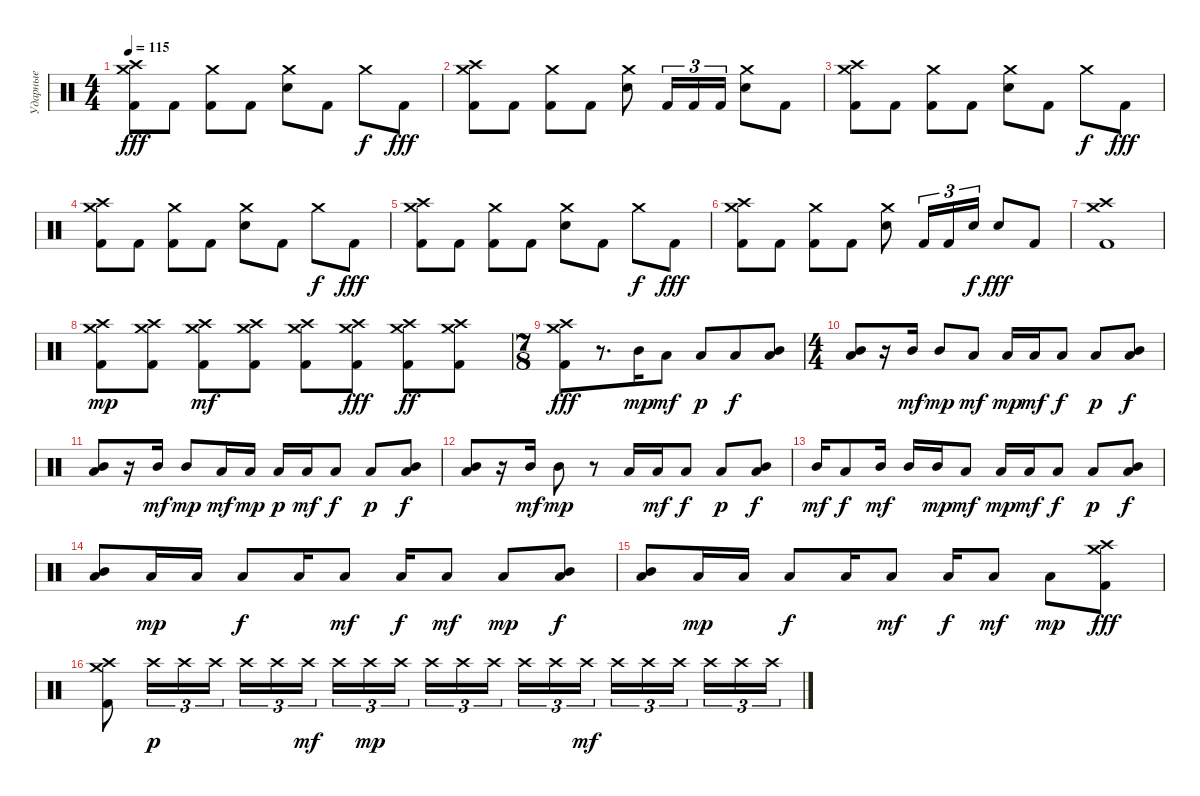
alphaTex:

\track ("Ударные" "Ударные") {instrument percussion}
\staff {score}
\articulation defaults
\ts (4 4)
\tempo 115
\clef neutral
\ks c
("Crash high (hit)" "Crash medium (hit)" "Kick (hit) 2").8{dy fff} "Kick (hit) 2".8 ("Crash medium (hit)" "Kick (hit) 2").8 "Kick (hit) 2".8 ("Crash medium (hit)" "Electric Snare (hit)").8 "Kick (hit) 2".8 "Crash medium (hit)".8{dy f} "Kick (hit) 2".8{dy fff} |
("Crash high (hit)" "Crash medium (hit)" "Kick (hit) 2").8 "Kick (hit) 2".8 ("Crash medium (hit)" "Kick (hit) 2").8 "Kick (hit) 2".8 ("Crash medium (hit)" "Electric Snare (hit)").8 "Kick (hit) 2".16{tu (3 2)} "Kick (hit) 2".16{tu (3 2)} "Kick (hit) 2".16{tu (3 2)} ("Crash medium (hit)" "Electric Snare (hit)").8 "Kick (hit) 2".8 |
("Crash high (hit)" "Crash medium (hit)" "Kick (hit) 2").8 "Kick (hit) 2".8 ("Crash medium (hit)" "Kick (hit) 2").8 "Kick (hit) 2".8 ("Crash medium (hit)" "Electric Snare (hit)").8 "Kick (hit) 2".8 "Crash medium (hit)".8{dy f} "Kick (hit) 2".8{dy fff} |
("Crash high (hit)" "Crash medium (hit)" "Kick (hit) 2").8 "Kick (hit) 2".8 ("Crash medium (hit)" "Kick (hit) 2").8 "Kick (hit) 2".8 ("Crash medium (hit)" "Electric Snare (hit)").8 "Kick (hit) 2".8 "Crash medium (hit)".8{dy f} "Kick (hit) 2".8{dy fff} |
("Crash high (hit)" "Crash medium (hit)" "Kick (hit) 2").8 "Kick (hit) 2".8 ("Crash medium (hit)" "Kick (hit) 2").8 "Kick (hit) 2".8 ("Crash medium (hit)" "Electric Snare (hit)").8 "Kick (hit) 2".8 "Crash medium (hit)".8{dy f} "Kick (hit) 2".8{dy fff} |
("Crash high (hit)" "Crash medium (hit)" "Kick (hit) 2").8 "Kick (hit) 2".8 ("Crash medium (hit)" "Kick (hit) 2").8 "Kick (hit) 2".8 ("Crash medium (hit)" "Electric Snare (hit)").8 "Kick (hit) 2".16{tu (3 2)} "Kick (hit) 2".16{tu (3 2)} "Electric Snare (hit)".16{tu (3 2) dy f} "Electric Snare (hit)".8{dy fff} "Kick (hit) 2".8 |
("Crash high (hit)" "Crash medium (hit)" "Kick (hit) 2").1 |
("Crash high (hit)" "Crash medium (hit)" "Kick (hit) 2").8{dy mp} ("Crash high (hit)" "Crash medium (hit)" "Kick (hit) 2").8 ("Crash high (hit)" "Crash medium (hit)" "Kick (hit) 2").8{dy mf} ("Crash high (hit)" "Crash medium (hit)" "Kick (hit) 2").8 ("Crash high (hit)" "Crash medium (hit)" "Kick (hit) 2").8 ("Crash high (hit)" "Crash medium (hit)" "Kick (hit) 2").8{dy fff} ("Crash high (hit)" "Crash medium (hit)" "Kick (hit) 2").8{dy ff} ("Crash high (hit)" "Crash medium (hit)" "Kick (hit) 2").8 |
\ts (7 8)
("Crash high (hit)" "Crash medium (hit)" "Kick (hit) 2").8{dy fff} r.8{d} "Mid Tom (hit)".16{dy mp} "Low Floor Tom (hit)".8{dy mf} "Low Floor Tom (hit)".8{dy p} "Low Floor Tom (hit)".8{dy f} ("Mid Tom (hit)" "Low Floor Tom (hit)").8 |
\ts (4 4)
("Mid Tom (hit)" "Low Floor Tom (hit)").8 r.16 "Mid Tom (hit)".16{dy mf} "Mid Tom (hit)".8{dy mp} "Low Tom (hit)".8{dy mf} "Low Tom (hit)".16{dy mp} "Low Floor Tom (hit)".16{dy mf} "Low Floor Tom (hit)".8{dy f} "Low Floor Tom (hit)".8{dy p} ("Mid Tom (hit)" "Low Floor Tom (hit)").8{dy f} |
("Mid Tom (hit)" "Low Floor Tom (hit)").8 r.16 "Mid Tom (hit)".16{dy mf} "Mid Tom (hit)".8{dy mp} "Low Tom (hit)".16{dy mf} "Low Tom (hit)".16{dy mp} "Low Tom (hit)".16{dy p} "Low Floor Tom (hit)".16{dy mf} "Low Floor Tom (hit)".8{dy f} "Low Floor Tom (hit)".8{dy p} ("Mid Tom (hit)" "Low Floor Tom (hit)").8{dy f} |
("Mid Tom (hit)" "Low Floor Tom (hit)").8 r.16 "Mid Tom (hit)".16{dy mf} "Mid Tom (hit)".8{dy mp} r.8 "Low Tom (hit)".16 "Low Floor Tom (hit)".16{dy mf} "Low Floor Tom (hit)".8{dy f} "Low Floor Tom (hit)".8{dy p} ("Mid Tom (hit)" "Low Floor Tom (hit)").8{dy f} |
"Mid Tom (hit)".16{dy mf} "Low Floor Tom (hit)".8{dy f} "Mid Tom (hit)".16{dy mf} "Mid Tom (hit)".16 "Mid Tom (hit)".16{dy mp} "Low Tom (hit)".8{dy mf} "Low Tom (hit)".16{dy mp} "Low Floor Tom (hit)".16{dy mf} "Low Floor Tom (hit)".8{dy f} "Low Floor Tom (hit)".8{dy p} ("Mid Tom (hit)" "Low Floor Tom (hit)").8{dy f} |
("Mid Tom (hit)" "Low Floor Tom (hit)").8 "Low Floor Tom (hit)".16{dy mp} "Low Floor Tom (hit)".16 "Low Floor Tom (hit)".8{dy f} "Low Floor Tom (hit)".16 "Low Floor Tom (hit)".8{dy mf} "Low Floor Tom (hit)".16{dy f} "Low Floor Tom (hit)".8{dy mf} "Low Floor Tom (hit)".8{dy mp} ("Mid Tom (hit)" "Low Floor Tom (hit)").8{dy f} |
("Mid Tom (hit)" "Low Floor Tom (hit)").8 "Low Floor Tom (hit)".16{dy mp} "Low Floor Tom (hit)".16 "Low Floor Tom (hit)".8{dy f} "Low Floor Tom (hit)".16 "Low Floor Tom (hit)".8{dy mf} "Low Floor Tom (hit)".16{dy f} "Low Floor Tom (hit)".8{dy mf} "Low Floor Tom (hit)".8{dy mp} ("Crash high (hit)" "Crash medium (hit)" "Kick (hit) 2").8{dy fff} |
("Crash high (hit)" "Crash medium (hit)" "Kick (hit) 2").8 "Crash high (hit)".16{tu (3 2) dy p} "Crash high (hit)".16{tu (3 2)} "Crash high (hit)".16{tu (3 2)} "Crash high (hit)".16{tu (3 2)} "Crash high (hit)".16{tu (3 2)} "Crash high (hit)".16{tu (3 2) dy mf beam splitsecondary} "Crash high (hit)".16{tu (3 2)} "Crash high (hit)".16{tu (3 2) dy mp} "Crash high (hit)".16{tu (3 2)} "Crash high (hit)".16{tu (3 2)} "Crash high (hit)".16{tu (3 2)} "Crash high (hit)".16{tu (3 2) beam splitsecondary} "Crash high (hit)".16{tu (3 2)} "Crash high (hit)".16{tu (3 2)} "Crash high (hit)".16{tu (3 2) dy mf} "Crash high (hit)".16{tu (3 2)} "Crash high (hit)".16{tu (3 2)} "Crash high (hit)".16{tu (3 2) beam splitsecondary} "Crash high (hit)".16{tu (3 2)} "Crash high (hit)".16{tu (3 2)} "Crash high (hit)".16{tu (3 2)}
